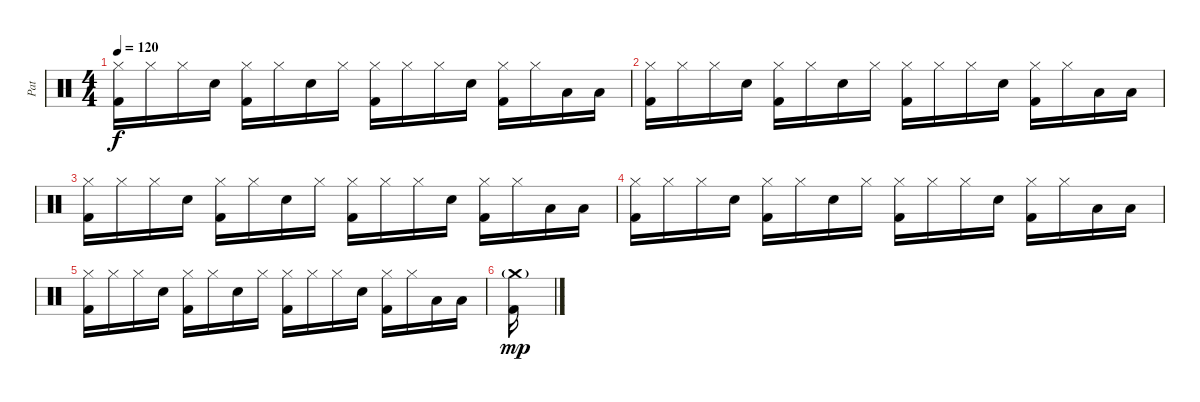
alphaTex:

\track ("Pat" "Pat") {instrument percussion}
\staff {score}
\articulation defaults
\ts (4 4)
\tempo 120
\clef neutral
\ks c
("Hi-Hat (closed)" "Kick (hit) 2").16{dy f} "Hi-Hat (closed)".16 "Hi-Hat (closed)".16 "Electric Snare (hit)".16 ("Hi-Hat (closed)" "Kick (hit) 2").16 "Hi-Hat (closed)".16 "Electric Snare (hit)".16 "Hi-Hat (closed)".16 ("Hi-Hat (closed)" "Kick (hit) 2").16 "Hi-Hat (closed)".16 "Hi-Hat (closed)".16 "Electric Snare (hit)".16 ("Hi-Hat (closed)" "Kick (hit) 2").16 "Hi-Hat (closed)".16 "Low Tom (hit)".16 "Low Tom (hit)".16 |
("Hi-Hat (closed)" "Kick (hit) 2").16 "Hi-Hat (closed)".16 "Hi-Hat (closed)".16 "Electric Snare (hit)".16 ("Hi-Hat (closed)" "Kick (hit) 2").16 "Hi-Hat (closed)".16 "Electric Snare (hit)".16 "Hi-Hat (closed)".16 ("Hi-Hat (closed)" "Kick (hit) 2").16 "Hi-Hat (closed)".16 "Hi-Hat (closed)".16 "Electric Snare (hit)".16 ("Hi-Hat (closed)" "Kick (hit) 2").16 "Hi-Hat (closed)".16 "Low Tom (hit)".16 "Low Tom (hit)".16 |
("Hi-Hat (closed)" "Kick (hit) 2").16 "Hi-Hat (closed)".16 "Hi-Hat (closed)".16 "Electric Snare (hit)".16 ("Hi-Hat (closed)" "Kick (hit) 2").16 "Hi-Hat (closed)".16 "Electric Snare (hit)".16 "Hi-Hat (closed)".16 ("Hi-Hat (closed)" "Kick (hit) 2").16 "Hi-Hat (closed)".16 "Hi-Hat (closed)".16 "Electric Snare (hit)".16 ("Hi-Hat (closed)" "Kick (hit) 2").16 "Hi-Hat (closed)".16 "Low Tom (hit)".16 "Low Tom (hit)".16 |
("Hi-Hat (closed)" "Kick (hit) 2").16 "Hi-Hat (closed)".16 "Hi-Hat (closed)".16 "Electric Snare (hit)".16 ("Hi-Hat (closed)" "Kick (hit) 2").16 "Hi-Hat (closed)".16 "Electric Snare (hit)".16 "Hi-Hat (closed)".16 ("Hi-Hat (closed)" "Kick (hit) 2").16 "Hi-Hat (closed)".16 "Hi-Hat (closed)".16 "Electric Snare (hit)".16 ("Hi-Hat (closed)" "Kick (hit) 2").16 "Hi-Hat (closed)".16 "Low Tom (hit)".16 "Low Tom (hit)".16 |
("Hi-Hat (closed)" "Kick (hit) 2").16 "Hi-Hat (closed)".16 "Hi-Hat (closed)".16 "Electric Snare (hit)".16 ("Hi-Hat (closed)" "Kick (hit) 2").16 "Hi-Hat (closed)".16 "Electric Snare (hit)".16 "Hi-Hat (closed)".16 ("Hi-Hat (closed)" "Kick (hit) 2").16 "Hi-Hat (closed)".16 "Hi-Hat (closed)".16 "Electric Snare (hit)".16 ("Hi-Hat (closed)" "Kick (hit) 2").16 "Hi-Hat (closed)".16 "Low Tom (hit)".16 "Low Tom (hit)".16 |
("Crash medium (hit)"{g} "Kick (hit) 2").16{dy mp}
